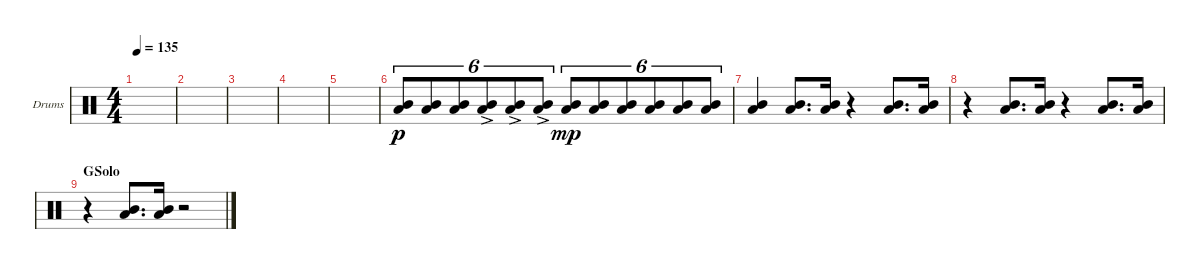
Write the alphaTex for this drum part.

\bracketExtendMode groupsimilarinstruments
\firstSystemTrackNameOrientation horizontal
\otherSystemsTrackNameOrientation horizontal
\track ("Tom" "Drums") {instrument percussion}
\staff {score}
\articulation defaults
\ts (4 4)
\tempo 135
\clef neutral
\ks c
|
|
|
|
|
("Low Tom (hit)" "Mid Tom (hit)").8{tu (6 4) dy p} ("Low Tom (hit)" "Mid Tom (hit)").8{tu (6 4)} ("Low Tom (hit)" "Mid Tom (hit)").8{tu (6 4)} ("Low Tom (hit)"{ac} "Mid Tom (hit)").8{tu (6 4)} ("Low Tom (hit)"{ac} "Mid Tom (hit)").8{tu (6 4)} ("Low Tom (hit)"{ac} "Mid Tom (hit)").8{tu (6 4)} ("Low Tom (hit)" "Mid Tom (hit)").8{tu (6 4) dy mp} ("Low Tom (hit)" "Mid Tom (hit)").8{tu (6 4)} ("Low Tom (hit)" "Mid Tom (hit)").8{tu (6 4)} ("Low Tom (hit)" "Mid Tom (hit)").8{tu (6 4)} ("Low Tom (hit)" "Mid Tom (hit)").8{tu (6 4)} ("Low Tom (hit)" "Mid Tom (hit)").8{tu (6 4)} |
("Low Tom (hit)" "Mid Tom (hit)").4 ("Low Tom (hit)" "Mid Tom (hit)").8{d} ("Low Tom (hit)" "Mid Tom (hit)").16 r.4 ("Low Tom (hit)" "Mid Tom (hit)").8{d} ("Low Tom (hit)" "Mid Tom (hit)").16 |
r.4 ("Low Tom (hit)" "Mid Tom (hit)").8{d} ("Low Tom (hit)" "Mid Tom (hit)").16 r.4 ("Low Tom (hit)" "Mid Tom (hit)").8{d} ("Low Tom (hit)" "Mid Tom (hit)").16 |
\section ("" "GSolo")
r.4 ("Low Tom (hit)" "Mid Tom (hit)").8{d} ("Low Tom (hit)" "Mid Tom (hit)").16 r.2
